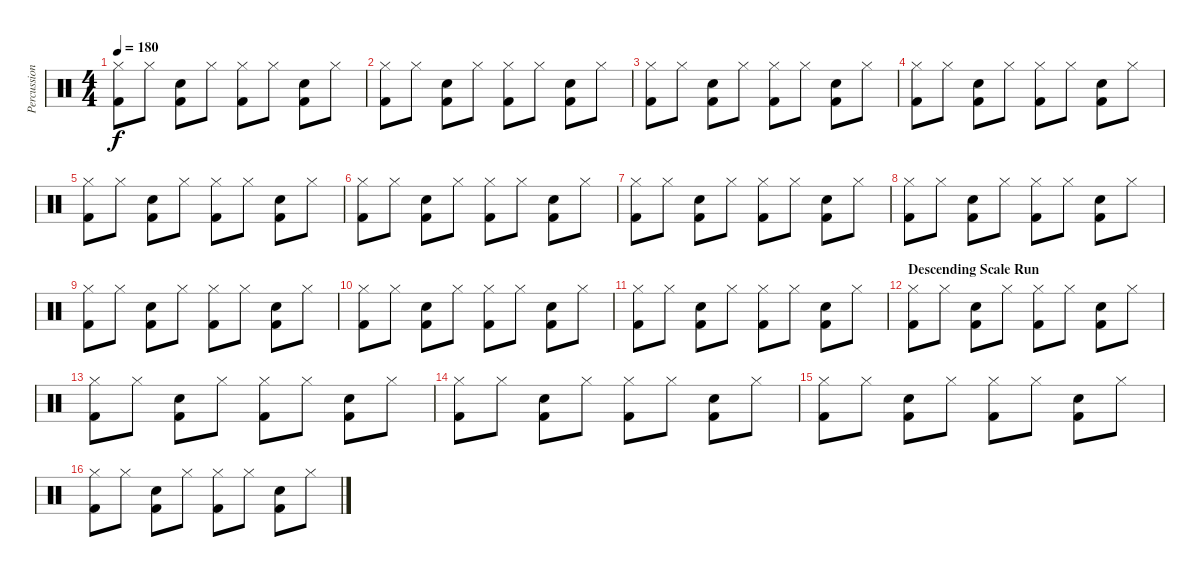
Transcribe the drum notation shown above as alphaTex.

\track ("Percussion" "Percussion") {instrument percussion}
\staff {score}
\articulation defaults
\ts (4 4)
\tempo 180
\clef neutral
\ks c
("Kick (hit) 2" "Hi-Hat (closed)").8{dy f} "Hi-Hat (closed)".8 ("Kick (hit) 2" "Snare (hit) 2").8 "Hi-Hat (closed)".8 ("Kick (hit) 2" "Hi-Hat (closed)").8 "Hi-Hat (closed)".8 ("Kick (hit) 2" "Electric Snare (hit)").8 "Hi-Hat (closed)".8 |
("Kick (hit) 2" "Hi-Hat (closed)").8 "Hi-Hat (closed)".8 ("Kick (hit) 2" "Snare (hit) 2").8 "Hi-Hat (closed)".8 ("Kick (hit) 2" "Hi-Hat (closed)").8 "Hi-Hat (closed)".8 ("Kick (hit) 2" "Electric Snare (hit)").8 "Hi-Hat (closed)".8 |
("Kick (hit) 2" "Hi-Hat (closed)").8 "Hi-Hat (closed)".8 ("Kick (hit) 2" "Snare (hit) 2").8 "Hi-Hat (closed)".8 ("Kick (hit) 2" "Hi-Hat (closed)").8 "Hi-Hat (closed)".8 ("Kick (hit) 2" "Electric Snare (hit)").8 "Hi-Hat (closed)".8 |
("Kick (hit) 2" "Hi-Hat (closed)").8 "Hi-Hat (closed)".8 ("Kick (hit) 2" "Snare (hit) 2").8 "Hi-Hat (closed)".8 ("Kick (hit) 2" "Hi-Hat (closed)").8 "Hi-Hat (closed)".8 ("Kick (hit) 2" "Electric Snare (hit)").8 "Hi-Hat (closed)".8 |
("Kick (hit) 2" "Hi-Hat (closed)").8 "Hi-Hat (closed)".8 ("Kick (hit) 2" "Snare (hit) 2").8 "Hi-Hat (closed)".8 ("Kick (hit) 2" "Hi-Hat (closed)").8 "Hi-Hat (closed)".8 ("Kick (hit) 2" "Electric Snare (hit)").8 "Hi-Hat (closed)".8 |
("Kick (hit) 2" "Hi-Hat (closed)").8 "Hi-Hat (closed)".8 ("Kick (hit) 2" "Snare (hit) 2").8 "Hi-Hat (closed)".8 ("Kick (hit) 2" "Hi-Hat (closed)").8 "Hi-Hat (closed)".8 ("Kick (hit) 2" "Electric Snare (hit)").8 "Hi-Hat (closed)".8 |
("Kick (hit) 2" "Hi-Hat (closed)").8 "Hi-Hat (closed)".8 ("Kick (hit) 2" "Snare (hit) 2").8 "Hi-Hat (closed)".8 ("Kick (hit) 2" "Hi-Hat (closed)").8 "Hi-Hat (closed)".8 ("Kick (hit) 2" "Electric Snare (hit)").8 "Hi-Hat (closed)".8 |
("Kick (hit) 2" "Hi-Hat (closed)").8 "Hi-Hat (closed)".8 ("Kick (hit) 2" "Snare (hit) 2").8 "Hi-Hat (closed)".8 ("Kick (hit) 2" "Hi-Hat (closed)").8 "Hi-Hat (closed)".8 ("Kick (hit) 2" "Electric Snare (hit)").8 "Hi-Hat (closed)".8 |
("Kick (hit) 2" "Hi-Hat (closed)").8 "Hi-Hat (closed)".8 ("Kick (hit) 2" "Snare (hit) 2").8 "Hi-Hat (closed)".8 ("Kick (hit) 2" "Hi-Hat (closed)").8 "Hi-Hat (closed)".8 ("Kick (hit) 2" "Electric Snare (hit)").8 "Hi-Hat (closed)".8 |
("Kick (hit) 2" "Hi-Hat (closed)").8 "Hi-Hat (closed)".8 ("Kick (hit) 2" "Snare (hit) 2").8 "Hi-Hat (closed)".8 ("Kick (hit) 2" "Hi-Hat (closed)").8 "Hi-Hat (closed)".8 ("Kick (hit) 2" "Electric Snare (hit)").8 "Hi-Hat (closed)".8 |
("Kick (hit) 2" "Hi-Hat (closed)").8 "Hi-Hat (closed)".8 ("Kick (hit) 2" "Snare (hit) 2").8 "Hi-Hat (closed)".8 ("Kick (hit) 2" "Hi-Hat (closed)").8 "Hi-Hat (closed)".8 ("Kick (hit) 2" "Electric Snare (hit)").8 "Hi-Hat (closed)".8 |
\section ("" "Descending Scale Run")
("Kick (hit) 2" "Hi-Hat (closed)").8 "Hi-Hat (closed)".8 ("Kick (hit) 2" "Snare (hit) 2").8 "Hi-Hat (closed)".8 ("Kick (hit) 2" "Hi-Hat (closed)").8 "Hi-Hat (closed)".8 ("Kick (hit) 2" "Electric Snare (hit)").8 "Hi-Hat (closed)".8 |
("Kick (hit) 2" "Hi-Hat (closed)").8 "Hi-Hat (closed)".8 ("Kick (hit) 2" "Snare (hit) 2").8 "Hi-Hat (closed)".8 ("Kick (hit) 2" "Hi-Hat (closed)").8 "Hi-Hat (closed)".8 ("Kick (hit) 2" "Electric Snare (hit)").8 "Hi-Hat (closed)".8 |
("Kick (hit) 2" "Hi-Hat (closed)").8 "Hi-Hat (closed)".8 ("Kick (hit) 2" "Snare (hit) 2").8 "Hi-Hat (closed)".8 ("Kick (hit) 2" "Hi-Hat (closed)").8 "Hi-Hat (closed)".8 ("Kick (hit) 2" "Electric Snare (hit)").8 "Hi-Hat (closed)".8 |
("Kick (hit) 2" "Hi-Hat (closed)").8 "Hi-Hat (closed)".8 ("Kick (hit) 2" "Snare (hit) 2").8 "Hi-Hat (closed)".8 ("Kick (hit) 2" "Hi-Hat (closed)").8 "Hi-Hat (closed)".8 ("Kick (hit) 2" "Electric Snare (hit)").8 "Hi-Hat (closed)".8 |
("Kick (hit) 2" "Hi-Hat (closed)").8 "Hi-Hat (closed)".8 ("Kick (hit) 2" "Snare (hit) 2").8 "Hi-Hat (closed)".8 ("Kick (hit) 2" "Hi-Hat (closed)").8 "Hi-Hat (closed)".8 ("Kick (hit) 2" "Electric Snare (hit)").8 "Hi-Hat (closed)".8
